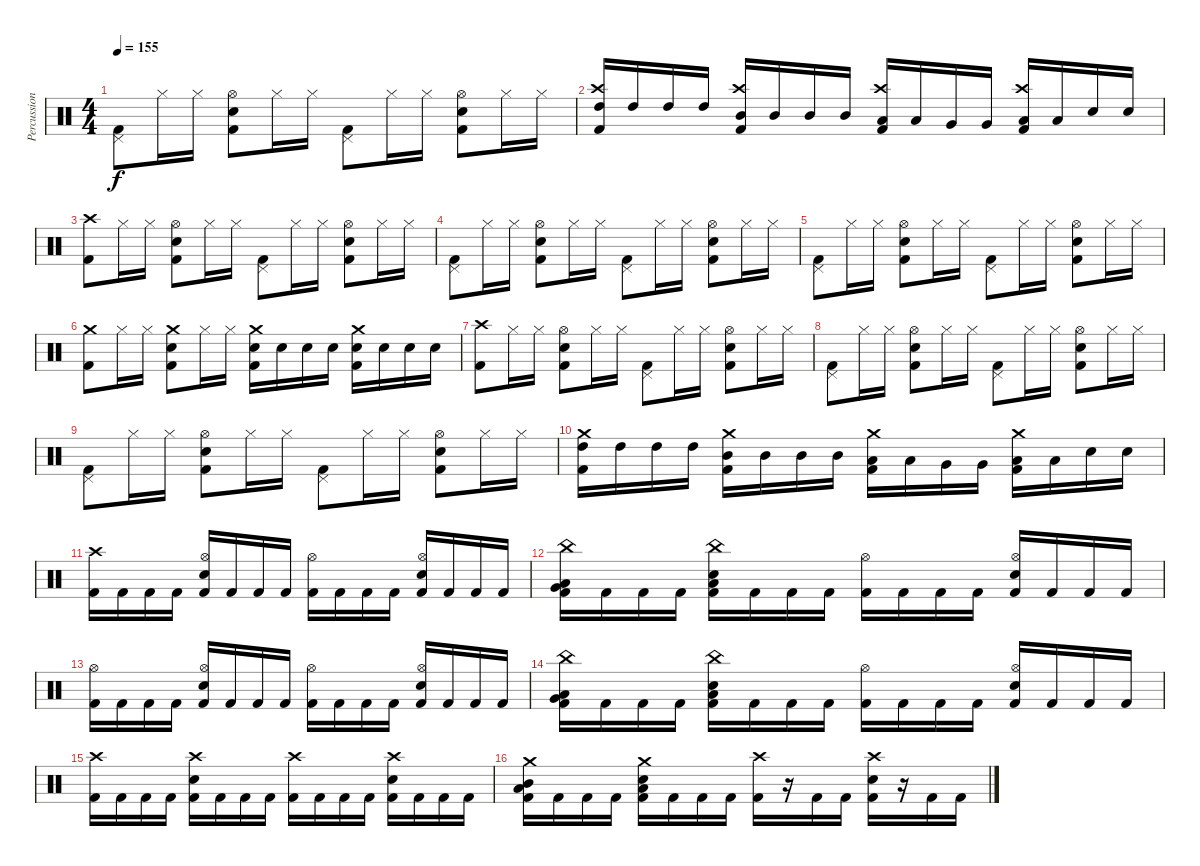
\track ("Percussion" "Percussion") {instrument percussion}
\staff {score}
\articulation defaults
\ts (4 4)
\tempo 155
\clef neutral
\ks c
("Pedal Hi-Hat (hit)" "Kick (hit) 2").8{dy f} "Hi-Hat (closed)".16 "Hi-Hat (closed)".16 ("Hi-Hat (open)" "Electric Snare (hit)" "Kick (hit) 2").8 "Hi-Hat (closed)".16 "Hi-Hat (closed)".16 ("Pedal Hi-Hat (hit)" "Kick (hit) 2").8 "Hi-Hat (closed)".16 "Hi-Hat (closed)".16 ("Hi-Hat (open)" "Electric Snare (hit)" "Kick (hit) 2").8 "Hi-Hat (closed)".16 "Hi-Hat (closed)".16 |
("Crash high (hit)" "High Tom (hit)" "Kick (hit) 2").16 "High Tom (hit)".16 "High Tom (hit)".16 "High Tom (hit)".16 ("Crash high (hit)" "Mid Tom (hit)" "Kick (hit) 2").16 "Mid Tom (hit)".16 "Mid Tom (hit)".16 "Mid Tom (hit)".16 ("Crash high (hit)" "Low Tom (hit)" "Kick (hit) 2").16 "Low Tom (hit)".16 "Very Low Tom (hit)".16 "Very Low Tom (hit)".16 ("Crash high (hit)" "Low Floor Tom (hit)" "Kick (hit) 2").16 "Low Floor Tom (hit)".16 "Electric Snare (hit)".16 "Electric Snare (hit)".16 |
("Crash high (hit)" "Kick (hit) 2").8 "Hi-Hat (closed)".16 "Hi-Hat (closed)".16 ("Hi-Hat (open)" "Electric Snare (hit)" "Kick (hit) 2").8 "Hi-Hat (closed)".16 "Hi-Hat (closed)".16 ("Pedal Hi-Hat (hit)" "Kick (hit) 2").8 "Hi-Hat (closed)".16 "Hi-Hat (closed)".16 ("Hi-Hat (open)" "Electric Snare (hit)" "Kick (hit) 2").8 "Hi-Hat (closed)".16 "Hi-Hat (closed)".16 |
("Pedal Hi-Hat (hit)" "Kick (hit) 2").8 "Hi-Hat (closed)".16 "Hi-Hat (closed)".16 ("Hi-Hat (open)" "Electric Snare (hit)" "Kick (hit) 2").8 "Hi-Hat (closed)".16 "Hi-Hat (closed)".16 ("Pedal Hi-Hat (hit)" "Kick (hit) 2").8 "Hi-Hat (closed)".16 "Hi-Hat (closed)".16 ("Hi-Hat (open)" "Electric Snare (hit)" "Kick (hit) 2").8 "Hi-Hat (closed)".16 "Hi-Hat (closed)".16 |
("Pedal Hi-Hat (hit)" "Kick (hit) 2").8 "Hi-Hat (closed)".16 "Hi-Hat (closed)".16 ("Hi-Hat (open)" "Electric Snare (hit)" "Kick (hit) 2").8 "Hi-Hat (closed)".16 "Hi-Hat (closed)".16 ("Pedal Hi-Hat (hit)" "Kick (hit) 2").8 "Hi-Hat (closed)".16 "Hi-Hat (closed)".16 ("Hi-Hat (open)" "Electric Snare (hit)" "Kick (hit) 2").8 "Hi-Hat (closed)".16 "Hi-Hat (closed)".16 |
("Crash medium (hit)" "Kick (hit) 2").8 "Hi-Hat (closed)".16 "Hi-Hat (closed)".16 ("Crash medium (hit)" "Electric Snare (hit)" "Kick (hit) 2").8 "Hi-Hat (closed)".16 "Hi-Hat (closed)".16 ("Crash medium (hit)" "Electric Snare (hit)" "Kick (hit) 2").16 "Electric Snare (hit)".16 "Electric Snare (hit)".16 "Electric Snare (hit)".16 ("Crash medium (hit)" "Electric Snare (hit)" "Kick (hit) 2").16 "Electric Snare (hit)".16 "Electric Snare (hit)".16 "Electric Snare (hit)".16 |
("Crash high (hit)" "Kick (hit) 2").8 "Hi-Hat (closed)".16 "Hi-Hat (closed)".16 ("Hi-Hat (open)" "Electric Snare (hit)" "Kick (hit) 2").8 "Hi-Hat (closed)".16 "Hi-Hat (closed)".16 ("Pedal Hi-Hat (hit)" "Kick (hit) 2").8 "Hi-Hat (closed)".16 "Hi-Hat (closed)".16 ("Hi-Hat (open)" "Electric Snare (hit)" "Kick (hit) 2").8 "Hi-Hat (closed)".16 "Hi-Hat (closed)".16 |
("Pedal Hi-Hat (hit)" "Kick (hit) 2").8 "Hi-Hat (closed)".16 "Hi-Hat (closed)".16 ("Hi-Hat (open)" "Electric Snare (hit)" "Kick (hit) 2").8 "Hi-Hat (closed)".16 "Hi-Hat (closed)".16 ("Pedal Hi-Hat (hit)" "Kick (hit) 2").8 "Hi-Hat (closed)".16 "Hi-Hat (closed)".16 ("Hi-Hat (open)" "Electric Snare (hit)" "Kick (hit) 2").8 "Hi-Hat (closed)".16 "Hi-Hat (closed)".16 |
("Pedal Hi-Hat (hit)" "Kick (hit) 2").8 "Hi-Hat (closed)".16 "Hi-Hat (closed)".16 ("Hi-Hat (open)" "Electric Snare (hit)" "Kick (hit) 2").8 "Hi-Hat (closed)".16 "Hi-Hat (closed)".16 ("Pedal Hi-Hat (hit)" "Kick (hit) 2").8 "Hi-Hat (closed)".16 "Hi-Hat (closed)".16 ("Hi-Hat (open)" "Electric Snare (hit)" "Kick (hit) 2").8 "Hi-Hat (closed)".16 "Hi-Hat (closed)".16 |
("Crash medium (hit)" "High Tom (hit)" "Kick (hit) 2").16 "High Tom (hit)".16 "High Tom (hit)".16 "High Tom (hit)".16 ("Crash medium (hit)" "Mid Tom (hit)" "Kick (hit) 2").16 "Mid Tom (hit)".16 "Mid Tom (hit)".16 "Mid Tom (hit)".16 ("Crash medium (hit)" "Low Tom (hit)" "Kick (hit) 2").16 "Low Tom (hit)".16 "Very Low Tom (hit)".16 "Very Low Tom (hit)".16 ("Crash medium (hit)" "Low Floor Tom (hit)" "Kick (hit) 2").16 "Low Floor Tom (hit)".16 "Electric Snare (hit)".16 "Electric Snare (hit)".16 |
("Crash high (hit)" "Kick (hit) 2").16 "Kick (hit) 2".16 "Kick (hit) 2".16 "Kick (hit) 2".16 ("Hi-Hat (open)" "Electric Snare (hit)" "Kick (hit) 2").16 "Kick (hit) 2".16 "Kick (hit) 2".16 "Kick (hit) 2".16 ("Hi-Hat (open)" "Kick (hit) 2").16 "Kick (hit) 2".16 "Kick (hit) 2".16 "Kick (hit) 2".16 ("Hi-Hat (open)" "Electric Snare (hit)" "Kick (hit) 2").16 "Kick (hit) 2".16 "Kick (hit) 2".16 "Kick (hit) 2".16 |
("China (hit)" "Very Low Tom (hit)" "Low Floor Tom (hit)" "Kick (hit) 2").16 "Kick (hit) 2".16 "Kick (hit) 2".16 "Kick (hit) 2".16 ("China (hit)" "Electric Snare (hit)" "Low Floor Tom (hit)" "Kick (hit) 2").16 "Kick (hit) 2".16 "Kick (hit) 2".16 "Kick (hit) 2".16 ("Hi-Hat (open)" "Kick (hit) 2").16 "Kick (hit) 2".16 "Kick (hit) 2".16 "Kick (hit) 2".16 ("Hi-Hat (open)" "Electric Snare (hit)" "Kick (hit) 2").16 "Kick (hit) 2".16 "Kick (hit) 2".16 "Kick (hit) 2".16 |
("Hi-Hat (open)" "Kick (hit) 2").16 "Kick (hit) 2".16 "Kick (hit) 2".16 "Kick (hit) 2".16 ("Hi-Hat (open)" "Electric Snare (hit)" "Kick (hit) 2").16 "Kick (hit) 2".16 "Kick (hit) 2".16 "Kick (hit) 2".16 ("Hi-Hat (open)" "Kick (hit) 2").16 "Kick (hit) 2".16 "Kick (hit) 2".16 "Kick (hit) 2".16 ("Hi-Hat (open)" "Electric Snare (hit)" "Kick (hit) 2").16 "Kick (hit) 2".16 "Kick (hit) 2".16 "Kick (hit) 2".16 |
("China (hit)" "Very Low Tom (hit)" "Low Floor Tom (hit)" "Kick (hit) 2").16 "Kick (hit) 2".16 "Kick (hit) 2".16 "Kick (hit) 2".16 ("China (hit)" "Electric Snare (hit)" "Low Floor Tom (hit)" "Kick (hit) 2").16 "Kick (hit) 2".16 "Kick (hit) 2".16 "Kick (hit) 2".16 ("Hi-Hat (open)" "Kick (hit) 2").16 "Kick (hit) 2".16 "Kick (hit) 2".16 "Kick (hit) 2".16 ("Hi-Hat (open)" "Electric Snare (hit)" "Kick (hit) 2").16 "Kick (hit) 2".16 "Kick (hit) 2".16 "Kick (hit) 2".16 |
("Crash high (hit)" "Kick (hit) 2").16 "Kick (hit) 2".16 "Kick (hit) 2".16 "Kick (hit) 2".16 ("Crash high (hit)" "Electric Snare (hit)" "Kick (hit) 2").16 "Kick (hit) 2".16 "Kick (hit) 2".16 "Kick (hit) 2".16 ("Crash high (hit)" "Kick (hit) 2").16 "Kick (hit) 2".16 "Kick (hit) 2".16 "Kick (hit) 2".16 ("Crash high (hit)" "Electric Snare (hit)" "Kick (hit) 2").16 "Kick (hit) 2".16 "Kick (hit) 2".16 "Kick (hit) 2".16 |
("Crash medium (hit)" "Mid Tom (hit)" "Low Tom (hit)" "Kick (hit) 2").16 "Kick (hit) 2".16 "Kick (hit) 2".16 "Kick (hit) 2".16 ("Crash medium (hit)" "Electric Snare (hit)" "Low Tom (hit)" "Kick (hit) 2").16 "Kick (hit) 2".16 "Kick (hit) 2".16 "Kick (hit) 2".16 ("Crash high (hit)" "Kick (hit) 2").16 r.16 "Kick (hit) 2".16 "Kick (hit) 2".16 ("Crash high (hit)" "Electric Snare (hit)" "Kick (hit) 2").16 r.16 "Kick (hit) 2".16 "Kick (hit) 2".16
